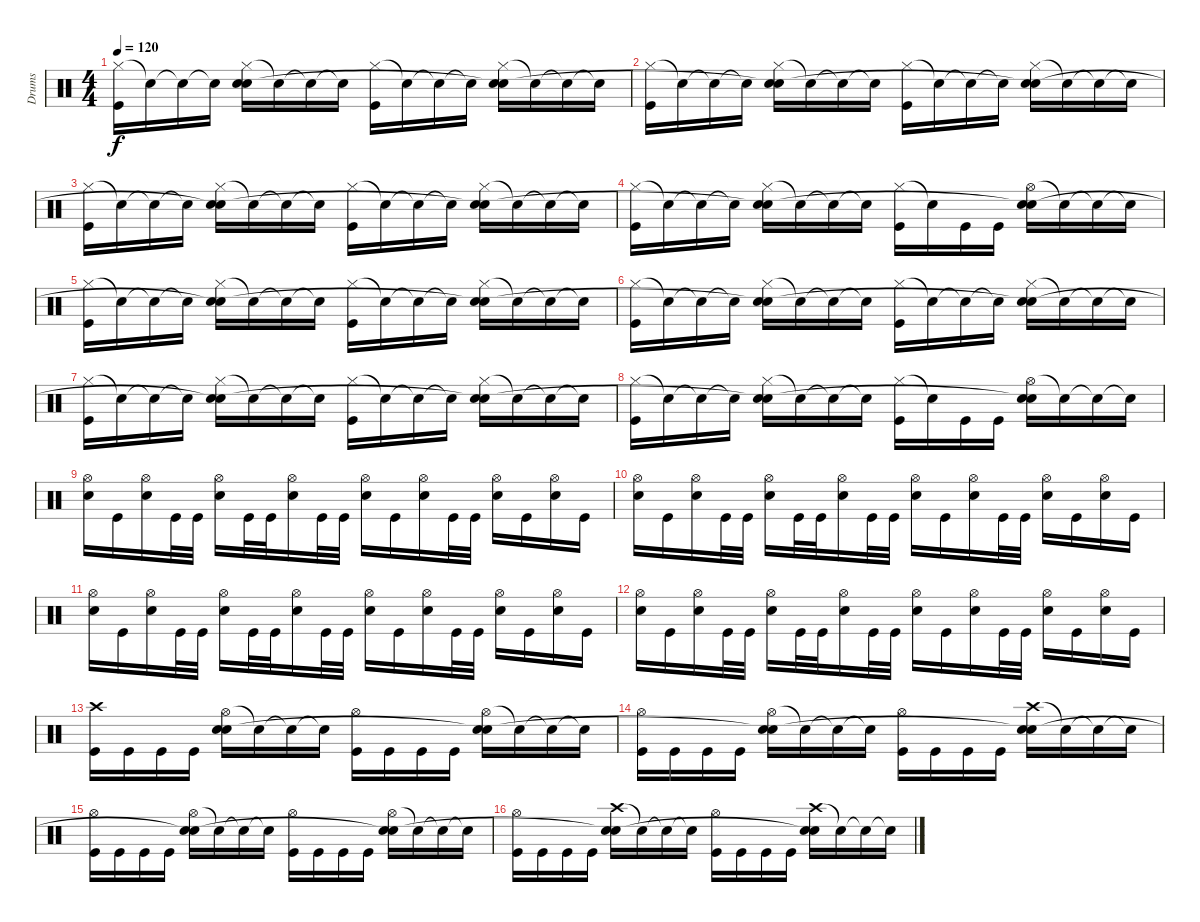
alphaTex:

\track ("Drums" "Drums") {instrument percussion}
\staff {score}
\articulation defaults
\ts (4 4)
\tempo 120
\clef neutral
\ks c
("Hi-Hat (closed)" "Kick (hit)").16{dy f} "Snare (hit)"{t}.16 "Snare (hit)"{t}.16 "Snare (hit)"{t}.16 ("Hi-Hat (closed)" "Electric Snare (hit)" "Snare (hit)"{t}).16 "Snare (hit)"{t}.16 "Snare (hit)"{t}.16 "Snare (hit)"{t}.16 ("Hi-Hat (closed)" "Kick (hit)").16 "Snare (hit)"{t}.16 "Snare (hit)"{t}.16 "Snare (hit)"{t}.16 ("Hi-Hat (closed)" "Electric Snare (hit)" "Snare (hit)"{t}).16 "Snare (hit)"{t}.16 "Snare (hit)"{t}.16 "Snare (hit)"{t}.16 |
("Hi-Hat (closed)" "Kick (hit)").16 "Snare (hit)"{t}.16 "Snare (hit)"{t}.16 "Snare (hit)"{t}.16 ("Hi-Hat (closed)" "Electric Snare (hit)" "Snare (hit)"{t}).16 "Snare (hit)"{t}.16 "Snare (hit)"{t}.16 "Snare (hit)"{t}.16 ("Hi-Hat (closed)" "Kick (hit)").16 "Snare (hit)"{t}.16 "Snare (hit)"{t}.16 "Snare (hit)"{t}.16 ("Hi-Hat (closed)" "Electric Snare (hit)" "Snare (hit)"{t}).16 "Snare (hit)"{t}.16 "Snare (hit)"{t}.16 "Snare (hit)"{t}.16 |
("Hi-Hat (closed)" "Kick (hit)").16 "Snare (hit)"{t}.16 "Snare (hit)"{t}.16 "Snare (hit)"{t}.16 ("Hi-Hat (closed)" "Electric Snare (hit)" "Snare (hit)"{t}).16 "Snare (hit)"{t}.16 "Snare (hit)"{t}.16 "Snare (hit)"{t}.16 ("Hi-Hat (closed)" "Kick (hit)").16 "Snare (hit)"{t}.16 "Snare (hit)"{t}.16 "Snare (hit)"{t}.16 ("Hi-Hat (closed)" "Electric Snare (hit)" "Snare (hit)"{t}).16 "Snare (hit)"{t}.16 "Snare (hit)"{t}.16 "Snare (hit)"{t}.16 |
("Hi-Hat (closed)" "Kick (hit)").16 "Snare (hit)"{t}.16 "Snare (hit)"{t}.16 "Snare (hit)"{t}.16 ("Hi-Hat (closed)" "Electric Snare (hit)" "Snare (hit)"{t}).16 "Snare (hit)"{t}.16 "Snare (hit)"{t}.16 "Snare (hit)"{t}.16 ("Hi-Hat (closed)" "Kick (hit)").16 "Snare (hit)"{t}.16 "Kick (hit)".16 "Kick (hit)".16 ("Hi-Hat (open)" "Electric Snare (hit)" "Snare (hit)"{t}).16 "Snare (hit)"{t}.16 "Snare (hit)"{t}.16 "Snare (hit)"{t}.16 |
("Hi-Hat (closed)" "Kick (hit)").16 "Snare (hit)"{t}.16 "Snare (hit)"{t}.16 "Snare (hit)"{t}.16 ("Hi-Hat (closed)" "Electric Snare (hit)" "Snare (hit)"{t}).16 "Snare (hit)"{t}.16 "Snare (hit)"{t}.16 "Snare (hit)"{t}.16 ("Hi-Hat (closed)" "Kick (hit)").16 "Snare (hit)"{t}.16 "Snare (hit)"{t}.16 "Snare (hit)"{t}.16 ("Hi-Hat (closed)" "Electric Snare (hit)" "Snare (hit)"{t}).16 "Snare (hit)"{t}.16 "Snare (hit)"{t}.16 "Snare (hit)"{t}.16 |
("Hi-Hat (closed)" "Kick (hit)").16 "Snare (hit)"{t}.16 "Snare (hit)"{t}.16 "Snare (hit)"{t}.16 ("Hi-Hat (closed)" "Electric Snare (hit)" "Snare (hit)"{t}).16 "Snare (hit)"{t}.16 "Snare (hit)"{t}.16 "Snare (hit)"{t}.16 ("Hi-Hat (closed)" "Kick (hit)").16 "Snare (hit)"{t}.16 "Snare (hit)"{t}.16 "Snare (hit)"{t}.16 ("Hi-Hat (closed)" "Electric Snare (hit)" "Snare (hit)"{t}).16 "Snare (hit)"{t}.16 "Snare (hit)"{t}.16 "Snare (hit)"{t}.16 |
("Hi-Hat (closed)" "Kick (hit)").16 "Snare (hit)"{t}.16 "Snare (hit)"{t}.16 "Snare (hit)"{t}.16 ("Hi-Hat (closed)" "Electric Snare (hit)" "Snare (hit)"{t}).16 "Snare (hit)"{t}.16 "Snare (hit)"{t}.16 "Snare (hit)"{t}.16 ("Hi-Hat (closed)" "Kick (hit)").16 "Snare (hit)"{t}.16 "Snare (hit)"{t}.16 "Snare (hit)"{t}.16 ("Hi-Hat (closed)" "Electric Snare (hit)" "Snare (hit)"{t}).16 "Snare (hit)"{t}.16 "Snare (hit)"{t}.16 "Snare (hit)"{t}.16 |
("Hi-Hat (closed)" "Kick (hit)").16 "Snare (hit)"{t}.16 "Snare (hit)"{t}.16 "Snare (hit)"{t}.16 ("Hi-Hat (closed)" "Electric Snare (hit)" "Snare (hit)"{t}).16 "Snare (hit)"{t}.16 "Snare (hit)"{t}.16 "Snare (hit)"{t}.16 ("Hi-Hat (closed)" "Kick (hit)").16 "Snare (hit)"{t}.16 "Kick (hit)".16 "Kick (hit)".16 ("Hi-Hat (open)" "Electric Snare (hit)" "Snare (hit)"{t}).16 "Snare (hit)"{t}.16 "Snare (hit)"{t}.16 "Snare (hit)"{t}.16 |
("Hi-Hat (open)" "Electric Snare (hit)").16 "Kick (hit)".16 ("Hi-Hat (open)" "Electric Snare (hit)").16 "Kick (hit)".32 "Kick (hit)".32 ("Hi-Hat (open)" "Electric Snare (hit)").16 "Kick (hit)".32 "Kick (hit)".32 ("Hi-Hat (open)" "Electric Snare (hit)").16 "Kick (hit)".32 "Kick (hit)".32 ("Hi-Hat (open)" "Electric Snare (hit)").16 "Kick (hit)".16 ("Hi-Hat (open)" "Electric Snare (hit)").16 "Kick (hit)".32 "Kick (hit)".32 ("Hi-Hat (open)" "Electric Snare (hit)").16 "Kick (hit)".16 ("Hi-Hat (open)" "Electric Snare (hit)").16 "Kick (hit)".16 |
("Hi-Hat (open)" "Electric Snare (hit)").16 "Kick (hit)".16 ("Hi-Hat (open)" "Electric Snare (hit)").16 "Kick (hit)".32 "Kick (hit)".32 ("Hi-Hat (open)" "Electric Snare (hit)").16 "Kick (hit)".32 "Kick (hit)".32 ("Hi-Hat (open)" "Electric Snare (hit)").16 "Kick (hit)".32 "Kick (hit)".32 ("Hi-Hat (open)" "Electric Snare (hit)").16 "Kick (hit)".16 ("Hi-Hat (open)" "Electric Snare (hit)").16 "Kick (hit)".32 "Kick (hit)".32 ("Hi-Hat (open)" "Electric Snare (hit)").16 "Kick (hit)".16 ("Hi-Hat (open)" "Electric Snare (hit)").16 "Kick (hit)".16 |
("Hi-Hat (open)" "Electric Snare (hit)").16 "Kick (hit)".16 ("Hi-Hat (open)" "Electric Snare (hit)").16 "Kick (hit)".32 "Kick (hit)".32 ("Hi-Hat (open)" "Electric Snare (hit)").16 "Kick (hit)".32 "Kick (hit)".32 ("Hi-Hat (open)" "Electric Snare (hit)").16 "Kick (hit)".32 "Kick (hit)".32 ("Hi-Hat (open)" "Electric Snare (hit)").16 "Kick (hit)".16 ("Hi-Hat (open)" "Electric Snare (hit)").16 "Kick (hit)".32 "Kick (hit)".32 ("Hi-Hat (open)" "Electric Snare (hit)").16 "Kick (hit)".16 ("Hi-Hat (open)" "Electric Snare (hit)").16 "Kick (hit)".16 |
("Hi-Hat (open)" "Electric Snare (hit)").16 "Kick (hit)".16 ("Hi-Hat (open)" "Electric Snare (hit)").16 "Kick (hit)".32 "Kick (hit)".32 ("Hi-Hat (open)" "Electric Snare (hit)").16 "Kick (hit)".32 "Kick (hit)".32 ("Hi-Hat (open)" "Electric Snare (hit)").16 "Kick (hit)".32 "Kick (hit)".32 ("Hi-Hat (open)" "Electric Snare (hit)").16 "Kick (hit)".16 ("Hi-Hat (open)" "Electric Snare (hit)").16 "Kick (hit)".32 "Kick (hit)".32 ("Hi-Hat (open)" "Electric Snare (hit)").16 "Kick (hit)".16 ("Hi-Hat (open)" "Electric Snare (hit)").16 "Kick (hit)".16 |
("Crash high (hit)" "Kick (hit)").16 "Kick (hit)".16 "Kick (hit)".16 "Kick (hit)".16 ("Hi-Hat (open)" "Electric Snare (hit)" "Snare (hit)").16 "Snare (hit)"{t}.16 "Snare (hit)"{t}.16 "Snare (hit)"{t}.16 ("Hi-Hat (open)" "Kick (hit)").16 "Kick (hit)".16 "Kick (hit)".16 "Kick (hit)".16 ("Hi-Hat (open)" "Electric Snare (hit)" "Snare (hit)"{t}).16 "Snare (hit)"{t}.16 "Snare (hit)"{t}.16 "Snare (hit)"{t}.16 |
("Hi-Hat (open)" "Kick (hit)").16 "Kick (hit)".16 "Kick (hit)".16 "Kick (hit)".16 ("Hi-Hat (open)" "Electric Snare (hit)" "Snare (hit)"{t}).16 "Snare (hit)"{t}.16 "Snare (hit)"{t}.16 "Snare (hit)"{t}.16 ("Hi-Hat (open)" "Kick (hit)").16 "Kick (hit)".16 "Kick (hit)".16 "Kick (hit)".16 ("Crash high (hit)" "Electric Snare (hit)" "Snare (hit)"{t}).16 "Snare (hit)"{t}.16 "Snare (hit)"{t}.16 "Snare (hit)"{t}.16 |
("Hi-Hat (open)" "Kick (hit)").16 "Kick (hit)".16 "Kick (hit)".16 "Kick (hit)".16 ("Hi-Hat (open)" "Electric Snare (hit)" "Snare (hit)"{t}).16 "Snare (hit)"{t}.16 "Snare (hit)"{t}.16 "Snare (hit)"{t}.16 ("Hi-Hat (open)" "Kick (hit)").16 "Kick (hit)".16 "Kick (hit)".16 "Kick (hit)".16 ("Hi-Hat (open)" "Electric Snare (hit)" "Snare (hit)"{t}).16 "Snare (hit)"{t}.16 "Snare (hit)"{t}.16 "Snare (hit)"{t}.16 |
("Hi-Hat (open)" "Kick (hit)").16 "Kick (hit)".16 "Kick (hit)".16 "Kick (hit)".16 ("Crash high (hit)" "Electric Snare (hit)" "Snare (hit)"{t}).16 "Snare (hit)"{t}.16 "Snare (hit)"{t}.16 "Snare (hit)"{t}.16 ("Hi-Hat (open)" "Kick (hit)").16 "Kick (hit)".16 "Kick (hit)".16 "Kick (hit)".16 ("Crash high (hit)" "Electric Snare (hit)" "Snare (hit)"{t}).16 "Snare (hit)"{t}.16 "Snare (hit)"{t}.16 "Snare (hit)"{t}.16
